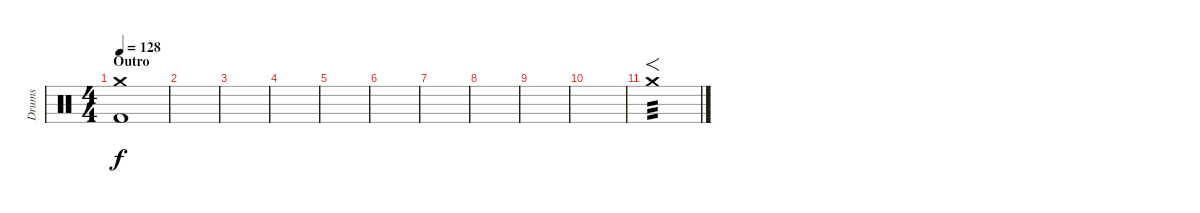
\track ("Drums" "Drums") {instrument percussion}
\staff {score}
\articulation defaults
\ts (4 4)
\section ("" "Outro")
\tempo 128
\clef neutral
\ks c
("Crash medium (hit)" "Kick (hit) 2").1{dy f} |
|
|
|
|
|
|
|
|
|
"Crash medium (hit)".1{f tp 3}
